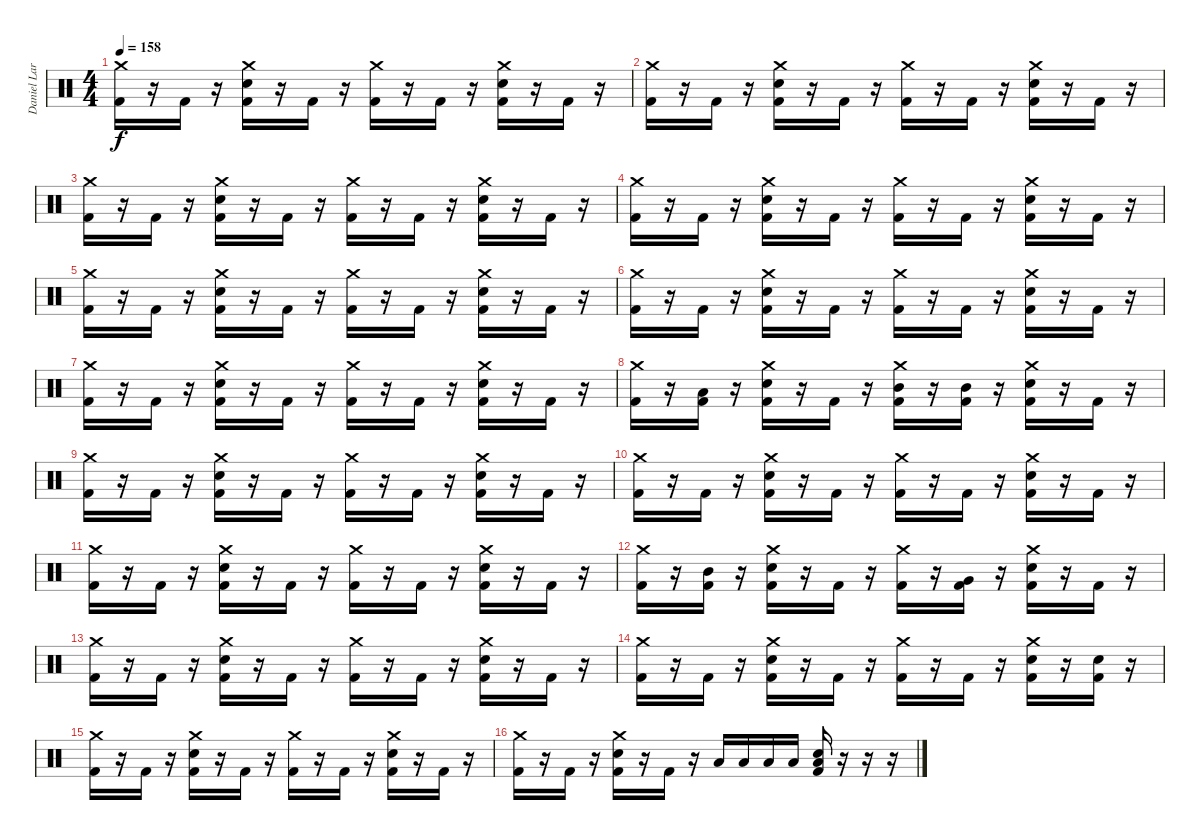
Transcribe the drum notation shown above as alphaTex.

\track ("Daniel Larsen" "Daniel Lar") {instrument percussion}
\staff {score}
\articulation defaults
\ts (4 4)
\tempo 158
\clef neutral
\ks c
("Crash medium (hit)" "Kick (hit) 2").16{dy f} r.16 "Kick (hit) 2".16 r.16 ("Crash medium (hit)" "Electric Snare (hit)" "Kick (hit) 2").16 r.16 "Kick (hit) 2".16 r.16 ("Crash medium (hit)" "Kick (hit) 2").16 r.16 "Kick (hit) 2".16 r.16 ("Crash medium (hit)" "Electric Snare (hit)" "Kick (hit) 2").16 r.16 "Kick (hit) 2".16 r.16 |
("Crash medium (hit)" "Kick (hit) 2").16 r.16 "Kick (hit) 2".16 r.16 ("Crash medium (hit)" "Electric Snare (hit)" "Kick (hit) 2").16 r.16 "Kick (hit) 2".16 r.16 ("Crash medium (hit)" "Kick (hit) 2").16 r.16 "Kick (hit) 2".16 r.16 ("Crash medium (hit)" "Electric Snare (hit)" "Kick (hit) 2").16 r.16 "Kick (hit) 2".16 r.16 |
("Crash medium (hit)" "Kick (hit) 2").16 r.16 "Kick (hit) 2".16 r.16 ("Crash medium (hit)" "Electric Snare (hit)" "Kick (hit) 2").16 r.16 "Kick (hit) 2".16 r.16 ("Crash medium (hit)" "Kick (hit) 2").16 r.16 "Kick (hit) 2".16 r.16 ("Crash medium (hit)" "Electric Snare (hit)" "Kick (hit) 2").16 r.16 "Kick (hit) 2".16 r.16 |
("Crash medium (hit)" "Kick (hit) 2").16 r.16 "Kick (hit) 2".16 r.16 ("Crash medium (hit)" "Electric Snare (hit)" "Kick (hit) 2").16 r.16 "Kick (hit) 2".16 r.16 ("Crash medium (hit)" "Kick (hit) 2").16 r.16 "Kick (hit) 2".16 r.16 ("Crash medium (hit)" "Electric Snare (hit)" "Kick (hit) 2").16 r.16 "Kick (hit) 2".16 r.16 |
("Crash medium (hit)" "Kick (hit) 2").16 r.16 "Kick (hit) 2".16 r.16 ("Crash medium (hit)" "Electric Snare (hit)" "Kick (hit) 2").16 r.16 "Kick (hit) 2".16 r.16 ("Crash medium (hit)" "Kick (hit) 2").16 r.16 "Kick (hit) 2".16 r.16 ("Crash medium (hit)" "Electric Snare (hit)" "Kick (hit) 2").16 r.16 "Kick (hit) 2".16 r.16 |
("Crash medium (hit)" "Kick (hit) 2").16 r.16 "Kick (hit) 2".16 r.16 ("Crash medium (hit)" "Electric Snare (hit)" "Kick (hit) 2").16 r.16 "Kick (hit) 2".16 r.16 ("Crash medium (hit)" "Kick (hit) 2").16 r.16 "Kick (hit) 2".16 r.16 ("Crash medium (hit)" "Electric Snare (hit)" "Kick (hit) 2").16 r.16 "Kick (hit) 2".16 r.16 |
("Crash medium (hit)" "Kick (hit) 2").16 r.16 "Kick (hit) 2".16 r.16 ("Crash medium (hit)" "Electric Snare (hit)" "Kick (hit) 2").16 r.16 "Kick (hit) 2".16 r.16 ("Crash medium (hit)" "Kick (hit) 2").16 r.16 "Kick (hit) 2".16 r.16 ("Crash medium (hit)" "Electric Snare (hit)" "Kick (hit) 2").16 r.16 "Kick (hit) 2".16 r.16 |
("Crash medium (hit)" "Kick (hit) 2").16 r.16 ("Low Tom (hit)" "Kick (hit) 2").16 r.16 ("Crash medium (hit)" "Electric Snare (hit)" "Kick (hit) 2").16 r.16 "Kick (hit) 2".16 r.16 ("Crash medium (hit)" "Mid Tom (hit)" "Kick (hit) 2").16 r.16 ("Mid Tom (hit)" "Kick (hit) 2").16 r.16 ("Crash medium (hit)" "Electric Snare (hit)" "Kick (hit) 2").16 r.16 "Kick (hit) 2".16 r.16 |
("Crash medium (hit)" "Kick (hit) 2").16 r.16 "Kick (hit) 2".16 r.16 ("Crash medium (hit)" "Electric Snare (hit)" "Kick (hit) 2").16 r.16 "Kick (hit) 2".16 r.16 ("Crash medium (hit)" "Kick (hit) 2").16 r.16 "Kick (hit) 2".16 r.16 ("Crash medium (hit)" "Electric Snare (hit)" "Kick (hit) 2").16 r.16 "Kick (hit) 2".16 r.16 |
("Crash medium (hit)" "Kick (hit) 2").16 r.16 "Kick (hit) 2".16 r.16 ("Crash medium (hit)" "Electric Snare (hit)" "Kick (hit) 2").16 r.16 "Kick (hit) 2".16 r.16 ("Crash medium (hit)" "Kick (hit) 2").16 r.16 "Kick (hit) 2".16 r.16 ("Crash medium (hit)" "Electric Snare (hit)" "Kick (hit) 2").16 r.16 "Kick (hit) 2".16 r.16 |
("Crash medium (hit)" "Kick (hit) 2").16 r.16 "Kick (hit) 2".16 r.16 ("Crash medium (hit)" "Electric Snare (hit)" "Kick (hit) 2").16 r.16 "Kick (hit) 2".16 r.16 ("Crash medium (hit)" "Kick (hit) 2").16 r.16 "Kick (hit) 2".16 r.16 ("Crash medium (hit)" "Electric Snare (hit)" "Kick (hit) 2").16 r.16 "Kick (hit) 2".16 r.16 |
("Crash medium (hit)" "Kick (hit) 2").16 r.16 ("Mid Tom (hit)" "Kick (hit) 2").16 r.16 ("Crash medium (hit)" "Electric Snare (hit)" "Kick (hit) 2").16 r.16 "Kick (hit) 2".16 r.16 ("Crash medium (hit)" "Kick (hit) 2").16 r.16 ("Very Low Tom (hit)" "Kick (hit) 2").16 r.16 ("Crash medium (hit)" "Electric Snare (hit)" "Kick (hit) 2").16 r.16 "Kick (hit) 2".16 r.16 |
("Crash medium (hit)" "Kick (hit) 2").16 r.16 "Kick (hit) 2".16 r.16 ("Crash medium (hit)" "Electric Snare (hit)" "Kick (hit) 2").16 r.16 "Kick (hit) 2".16 r.16 ("Crash medium (hit)" "Kick (hit) 2").16 r.16 "Kick (hit) 2".16 r.16 ("Crash medium (hit)" "Electric Snare (hit)" "Kick (hit) 2").16 r.16 "Kick (hit) 2".16 r.16 |
("Crash medium (hit)" "Kick (hit) 2").16 r.16 "Kick (hit) 2".16 r.16 ("Crash medium (hit)" "Electric Snare (hit)" "Kick (hit) 2").16 r.16 "Kick (hit) 2".16 r.16 ("Crash medium (hit)" "Kick (hit) 2").16 r.16 "Kick (hit) 2".16 r.16 ("Crash medium (hit)" "Electric Snare (hit)" "Kick (hit) 2").16 r.16 ("Electric Snare (hit)" "Kick (hit) 2").16 r.16 |
("Crash medium (hit)" "Kick (hit) 2").16 r.16 "Kick (hit) 2".16 r.16 ("Crash medium (hit)" "Electric Snare (hit)" "Kick (hit) 2").16 r.16 "Kick (hit) 2".16 r.16 ("Crash medium (hit)" "Kick (hit) 2").16 r.16 "Kick (hit) 2".16 r.16 ("Crash medium (hit)" "Electric Snare (hit)" "Kick (hit) 2").16 r.16 "Kick (hit) 2".16 r.16 |
("Crash medium (hit)" "Kick (hit) 2").16 r.16 "Kick (hit) 2".16 r.16 ("Crash medium (hit)" "Electric Snare (hit)" "Kick (hit) 2").16 r.16 "Kick (hit) 2".16 r.16 "Low Tom (hit)".16 "Low Tom (hit)".16 "Low Tom (hit)".16 "Low Tom (hit)".16 ("Low Tom (hit)" "Electric Snare (hit)" "Kick (hit) 2").16 r.16 r.16 r.16
